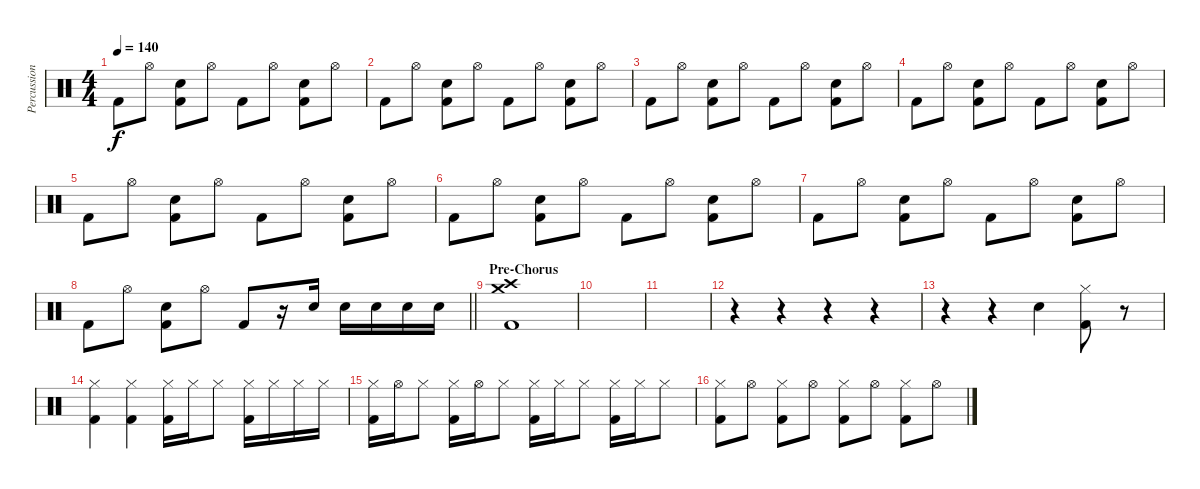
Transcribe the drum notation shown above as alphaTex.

\track ("Percussion" "Percussion") {instrument percussion}
\staff {score}
\articulation defaults
\ts (4 4)
\tempo 140
\clef neutral
\ks c "Kick (hit) 2".8{dy f} "Hi-Hat (open)".8
("Electric Snare (hit)" "Kick (hit) 2").8 "Hi-Hat (open)".8 "Kick (hit) 2".8 "Hi-Hat (open)".8 ("Electric Snare (hit)" "Kick (hit) 2").8 "Hi-Hat (open)".8 |
"Kick (hit) 2".8 "Hi-Hat (open)".8 ("Electric Snare (hit)" "Kick (hit) 2").8 "Hi-Hat (open)".8 "Kick (hit) 2".8 "Hi-Hat (open)".8 ("Electric Snare (hit)" "Kick (hit) 2").8 "Hi-Hat (open)".8 |
"Kick (hit) 2".8 "Hi-Hat (open)".8 ("Electric Snare (hit)" "Kick (hit) 2").8 "Hi-Hat (open)".8 "Kick (hit) 2".8 "Hi-Hat (open)".8 ("Electric Snare (hit)" "Kick (hit) 2").8 "Hi-Hat (open)".8 |
"Kick (hit) 2".8 "Hi-Hat (open)".8 ("Electric Snare (hit)" "Kick (hit) 2").8 "Hi-Hat (open)".8 "Kick (hit) 2".8 "Hi-Hat (open)".8 ("Electric Snare (hit)" "Kick (hit) 2").8 "Hi-Hat (open)".8 |
"Kick (hit) 2".8 "Hi-Hat (open)".8 ("Electric Snare (hit)" "Kick (hit) 2").8 "Hi-Hat (open)".8 "Kick (hit) 2".8 "Hi-Hat (open)".8 ("Electric Snare (hit)" "Kick (hit) 2").8 "Hi-Hat (open)".8 |
"Kick (hit) 2".8 "Hi-Hat (open)".8 ("Electric Snare (hit)" "Kick (hit) 2").8 "Hi-Hat (open)".8 "Kick (hit) 2".8 "Hi-Hat (open)".8 ("Electric Snare (hit)" "Kick (hit) 2").8 "Hi-Hat (open)".8 |
"Kick (hit) 2".8 "Hi-Hat (open)".8 ("Electric Snare (hit)" "Kick (hit) 2").8 "Hi-Hat (open)".8 "Kick (hit) 2".8 "Hi-Hat (open)".8 ("Electric Snare (hit)" "Kick (hit) 2").8 "Hi-Hat (open)".8 |
\barLineRight lightlight "Kick (hit) 2".8 "Hi-Hat (open)".8
("Electric Snare (hit)" "Kick (hit) 2").8 "Hi-Hat (open)".8 "Kick (hit) 2".8 r.16 "Electric Snare (hit)".16 "Electric Snare (hit)".16 "Electric Snare (hit)".16 "Electric Snare (hit)".16 "Electric Snare (hit)".16 |
\section ("" "Pre-Chorus")
("Crash medium (hit)" "Crash high (hit)" "Kick (hit) 2").1 |
|
|
r.4 r.4 r.4 r.4 |
r.4 r.4 "Electric Snare (hit)".4 ("Hi-Hat (closed)" "Kick (hit) 2").8 r.8 |
("Hi-Hat (closed)" "Kick (hit) 2").4 ("Hi-Hat (closed)" "Kick (hit) 2").4 ("Hi-Hat (closed)" "Kick (hit) 2").16 "Hi-Hat (closed)".16 "Hi-Hat (closed)".8 ("Hi-Hat (closed)" "Kick (hit) 2").16 "Hi-Hat (closed)".16 "Hi-Hat (closed)".16 "Hi-Hat (closed)".16 |
("Hi-Hat (closed)" "Kick (hit) 2").16 "Hi-Hat (open)".16 "Hi-Hat (closed)".8 ("Hi-Hat (closed)" "Kick (hit) 2").16 "Hi-Hat (open)".16 "Hi-Hat (closed)".8 ("Hi-Hat (closed)" "Kick (hit) 2").16 "Hi-Hat (closed)".16 "Hi-Hat (closed)".8 ("Hi-Hat (closed)" "Kick (hit) 2").16 "Hi-Hat (closed)".16 "Hi-Hat (closed)".8 |
("Hi-Hat (closed)" "Kick (hit) 2").8 "Hi-Hat (open)".8 ("Hi-Hat (closed)" "Kick (hit) 2").8 "Hi-Hat (open)".8 ("Hi-Hat (closed)" "Kick (hit) 2").8 "Hi-Hat (open)".8 ("Hi-Hat (closed)" "Kick (hit) 2").8 "Hi-Hat (open)".8
